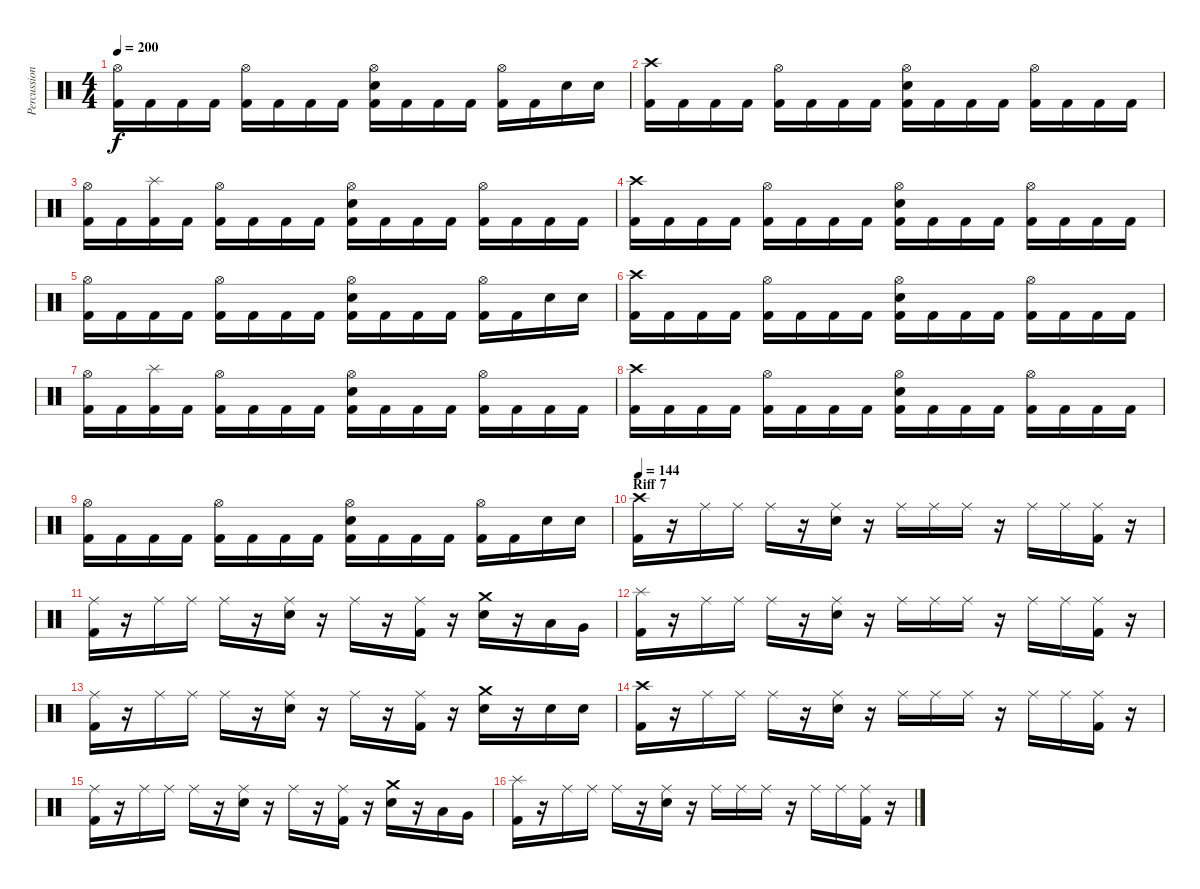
\track ("Percussion" "Percussion") {instrument percussion}
\staff {score}
\articulation defaults
\ts (4 4)
\tempo 200
\clef neutral
\ks c
("Hi-Hat (open)" "Kick (hit) 2").16{dy f} "Kick (hit) 2".16 "Kick (hit) 2".16 "Kick (hit) 2".16 ("Hi-Hat (open)" "Kick (hit) 2").16 "Kick (hit) 2".16 "Kick (hit) 2".16 "Kick (hit) 2".16 ("Hi-Hat (open)" "Electric Snare (hit)" "Kick (hit) 2").16 "Kick (hit) 2".16 "Kick (hit) 2".16 "Kick (hit) 2".16 ("Hi-Hat (open)" "Kick (hit) 2").16 "Kick (hit) 2".16 "Electric Snare (hit)".16 "Electric Snare (hit)".16 |
("Crash high (hit)" "Kick (hit) 2").16 "Kick (hit) 2".16 "Kick (hit) 2".16 "Kick (hit) 2".16 ("Hi-Hat (open)" "Kick (hit) 2").16 "Kick (hit) 2".16 "Kick (hit) 2".16 "Kick (hit) 2".16 ("Hi-Hat (open)" "Electric Snare (hit)" "Kick (hit) 2").16 "Kick (hit) 2".16 "Kick (hit) 2".16 "Kick (hit) 2".16 ("Hi-Hat (open)" "Kick (hit) 2").16 "Kick (hit) 2".16 "Kick (hit) 2".16 "Kick (hit) 2".16 |
("Hi-Hat (open)" "Kick (hit) 2").16 "Kick (hit) 2".16 ("Splash (hit)" "Kick (hit) 2").16 "Kick (hit) 2".16 ("Hi-Hat (open)" "Kick (hit) 2").16 "Kick (hit) 2".16 "Kick (hit) 2".16 "Kick (hit) 2".16 ("Hi-Hat (open)" "Electric Snare (hit)" "Kick (hit) 2").16 "Kick (hit) 2".16 "Kick (hit) 2".16 "Kick (hit) 2".16 ("Hi-Hat (open)" "Kick (hit) 2").16 "Kick (hit) 2".16 "Kick (hit) 2".16 "Kick (hit) 2".16 |
("Crash high (hit)" "Kick (hit) 2").16 "Kick (hit) 2".16 "Kick (hit) 2".16 "Kick (hit) 2".16 ("Hi-Hat (open)" "Kick (hit) 2").16 "Kick (hit) 2".16 "Kick (hit) 2".16 "Kick (hit) 2".16 ("Hi-Hat (open)" "Electric Snare (hit)" "Kick (hit) 2").16 "Kick (hit) 2".16 "Kick (hit) 2".16 "Kick (hit) 2".16 ("Hi-Hat (open)" "Kick (hit) 2").16 "Kick (hit) 2".16 "Kick (hit) 2".16 "Kick (hit) 2".16 |
("Hi-Hat (open)" "Kick (hit) 2").16 "Kick (hit) 2".16 "Kick (hit) 2".16 "Kick (hit) 2".16 ("Hi-Hat (open)" "Kick (hit) 2").16 "Kick (hit) 2".16 "Kick (hit) 2".16 "Kick (hit) 2".16 ("Hi-Hat (open)" "Electric Snare (hit)" "Kick (hit) 2").16 "Kick (hit) 2".16 "Kick (hit) 2".16 "Kick (hit) 2".16 ("Hi-Hat (open)" "Kick (hit) 2").16 "Kick (hit) 2".16 "Electric Snare (hit)".16 "Electric Snare (hit)".16 |
("Crash high (hit)" "Kick (hit) 2").16 "Kick (hit) 2".16 "Kick (hit) 2".16 "Kick (hit) 2".16 ("Hi-Hat (open)" "Kick (hit) 2").16 "Kick (hit) 2".16 "Kick (hit) 2".16 "Kick (hit) 2".16 ("Hi-Hat (open)" "Electric Snare (hit)" "Kick (hit) 2").16 "Kick (hit) 2".16 "Kick (hit) 2".16 "Kick (hit) 2".16 ("Hi-Hat (open)" "Kick (hit) 2").16 "Kick (hit) 2".16 "Kick (hit) 2".16 "Kick (hit) 2".16 |
("Hi-Hat (open)" "Kick (hit) 2").16 "Kick (hit) 2".16 ("Splash (hit)" "Kick (hit) 2").16 "Kick (hit) 2".16 ("Hi-Hat (open)" "Kick (hit) 2").16 "Kick (hit) 2".16 "Kick (hit) 2".16 "Kick (hit) 2".16 ("Hi-Hat (open)" "Electric Snare (hit)" "Kick (hit) 2").16 "Kick (hit) 2".16 "Kick (hit) 2".16 "Kick (hit) 2".16 ("Hi-Hat (open)" "Kick (hit) 2").16 "Kick (hit) 2".16 "Kick (hit) 2".16 "Kick (hit) 2".16 |
("Crash high (hit)" "Kick (hit) 2").16 "Kick (hit) 2".16 "Kick (hit) 2".16 "Kick (hit) 2".16 ("Hi-Hat (open)" "Kick (hit) 2").16 "Kick (hit) 2".16 "Kick (hit) 2".16 "Kick (hit) 2".16 ("Hi-Hat (open)" "Electric Snare (hit)" "Kick (hit) 2").16 "Kick (hit) 2".16 "Kick (hit) 2".16 "Kick (hit) 2".16 ("Hi-Hat (open)" "Kick (hit) 2").16 "Kick (hit) 2".16 "Kick (hit) 2".16 "Kick (hit) 2".16 |
("Hi-Hat (open)" "Kick (hit) 2").16 "Kick (hit) 2".16 "Kick (hit) 2".16 "Kick (hit) 2".16 ("Hi-Hat (open)" "Kick (hit) 2").16 "Kick (hit) 2".16 "Kick (hit) 2".16 "Kick (hit) 2".16 ("Hi-Hat (open)" "Electric Snare (hit)" "Kick (hit) 2").16 "Kick (hit) 2".16 "Kick (hit) 2".16 "Kick (hit) 2".16 ("Hi-Hat (open)" "Kick (hit) 2").16 "Kick (hit) 2".16 "Electric Snare (hit)".16 "Electric Snare (hit)".16 |
\section ("" "Riff 7")
\tempo 144
("Crash high (hit)" "Kick (hit) 2").16 r.16 "Ride (middle)".16 "Ride (middle)".16 "Ride (middle)".16 r.16 ("Ride (middle)" "Electric Snare (hit)").16 r.16 "Ride (middle)".16 "Ride (middle)".16 "Ride (middle)".16 r.16 "Ride (middle)".16 "Ride (middle)".16 ("Ride (middle)" "Kick (hit) 2").16 r.16 |
("Ride (middle)" "Kick (hit) 2").16 r.16 "Ride (middle)".16 "Ride (middle)".16 "Ride (middle)".16 r.16 ("Ride (middle)" "Electric Snare (hit)").16 r.16 "Ride (middle)".16 r.16 ("Ride (middle)" "Kick (hit) 2").16 r.16 ("Crash medium (hit)" "Electric Snare (hit)").16 r.16 "Low Tom (hit)".16 "Very Low Tom (hit)".16 |
("Splash (hit)" "Kick (hit) 2").16 r.16 "Ride (middle)".16 "Ride (middle)".16 "Ride (middle)".16 r.16 ("Ride (middle)" "Electric Snare (hit)").16 r.16 "Ride (middle)".16 "Ride (middle)".16 "Ride (middle)".16 r.16 "Ride (middle)".16 "Ride (middle)".16 ("Ride (middle)" "Kick (hit) 2").16 r.16 |
("Ride (middle)" "Kick (hit) 2").16 r.16 "Ride (middle)".16 "Ride (middle)".16 "Ride (middle)".16 r.16 ("Ride (middle)" "Electric Snare (hit)").16 r.16 "Ride (middle)".16 r.16 ("Ride (middle)" "Kick (hit) 2").16 r.16 ("Crash medium (hit)" "Electric Snare (hit)").16 r.16 "Electric Snare (hit)".16 "Electric Snare (hit)".16 |
("Crash high (hit)" "Kick (hit) 2").16 r.16 "Ride (middle)".16 "Ride (middle)".16 "Ride (middle)".16 r.16 ("Ride (middle)" "Electric Snare (hit)").16 r.16 "Ride (middle)".16 "Ride (middle)".16 "Ride (middle)".16 r.16 "Ride (middle)".16 "Ride (middle)".16 ("Ride (middle)" "Kick (hit) 2").16 r.16 |
("Ride (middle)" "Kick (hit) 2").16 r.16 "Ride (middle)".16 "Ride (middle)".16 "Ride (middle)".16 r.16 ("Ride (middle)" "Electric Snare (hit)").16 r.16 "Ride (middle)".16 r.16 ("Ride (middle)" "Kick (hit) 2").16 r.16 ("Crash medium (hit)" "Electric Snare (hit)").16 r.16 "Low Tom (hit)".16 "Very Low Tom (hit)".16 |
("Splash (hit)" "Kick (hit) 2").16 r.16 "Ride (middle)".16 "Ride (middle)".16 "Ride (middle)".16 r.16 ("Ride (middle)" "Electric Snare (hit)").16 r.16 "Ride (middle)".16 "Ride (middle)".16 "Ride (middle)".16 r.16 "Ride (middle)".16 "Ride (middle)".16 ("Ride (middle)" "Kick (hit) 2").16 r.16
